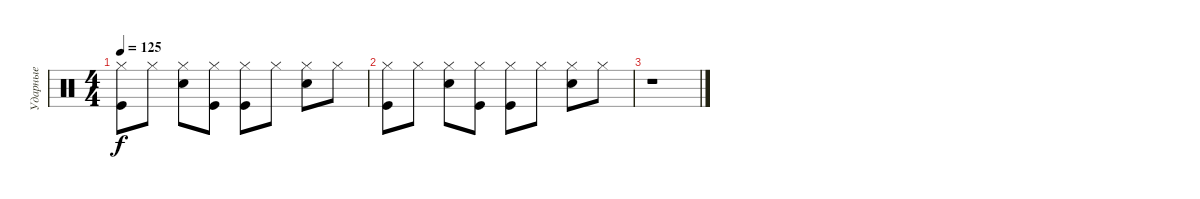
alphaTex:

\track ("Ударные" "Ударные") {instrument percussion}
\staff {score}
\articulation defaults
\ts (4 4)
\tempo 125
\clef neutral
\ks c
("Hi-Hat (closed)" "Kick (hit)").8{dy f} "Hi-Hat (closed)".8 ("Hi-Hat (closed)" "Snare (hit) 2").8 ("Hi-Hat (closed)" "Kick (hit)").8 ("Hi-Hat (closed)" "Kick (hit)").8 "Hi-Hat (closed)".8 ("Hi-Hat (closed)" "Snare (hit) 2").8 "Hi-Hat (closed)".8 |
("Hi-Hat (closed)" "Kick (hit)").8 "Hi-Hat (closed)".8 ("Hi-Hat (closed)" "Snare (hit) 2").8 ("Hi-Hat (closed)" "Kick (hit)").8 ("Hi-Hat (closed)" "Kick (hit)").8 "Hi-Hat (closed)".8 ("Hi-Hat (closed)" "Snare (hit) 2").8 "Hi-Hat (closed)".8 |
r.1
